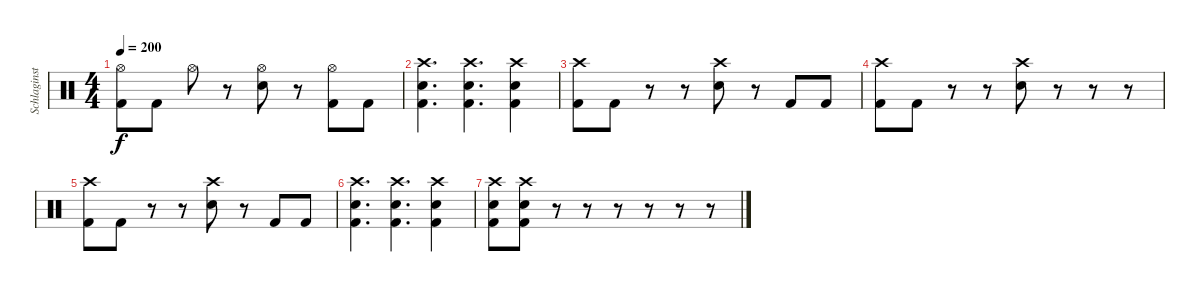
\track ("Schlaginstrumente - Auswahl" "Schlaginst") {instrument percussion}
\staff {score}
\articulation defaults
\ts (4 4)
\tempo 200
\clef neutral
\ks c
("Hi-Hat (open)" "Kick (hit) 2").8{dy f} "Kick (hit) 2".8 "Hi-Hat (open)".8 r.8 ("Hi-Hat (open)" "Electric Snare (hit)").8 r.8 ("Hi-Hat (open)" "Kick (hit) 2").8 "Kick (hit) 2".8 |
("Crash high (hit)" "Electric Snare (hit)" "Kick (hit) 2").4{d} ("Crash high (hit)" "Electric Snare (hit)" "Kick (hit) 2").4{d} ("Crash high (hit)" "Electric Snare (hit)" "Kick (hit) 2").4 |
("Crash high (hit)" "Kick (hit) 2").8 "Kick (hit) 2".8 r.8 r.8 ("Crash high (hit)" "Electric Snare (hit)").8 r.8 "Kick (hit) 2".8 "Kick (hit) 2".8 |
("Crash high (hit)" "Kick (hit) 2").8 "Kick (hit) 2".8 r.8 r.8 ("Crash high (hit)" "Electric Snare (hit)").8 r.8 r.8 r.8 |
("Crash high (hit)" "Kick (hit) 2").8 "Kick (hit) 2".8 r.8 r.8 ("Crash high (hit)" "Electric Snare (hit)").8 r.8 "Kick (hit) 2".8 "Kick (hit) 2".8 |
("Crash high (hit)" "Electric Snare (hit)" "Kick (hit) 2").4{d} ("Crash high (hit)" "Electric Snare (hit)" "Kick (hit) 2").4{d} ("Crash high (hit)" "Electric Snare (hit)" "Kick (hit) 2").4 |
("Crash high (hit)" "Electric Snare (hit)" "Kick (hit) 2").8 ("Crash high (hit)" "Electric Snare (hit)" "Kick (hit) 2").8 r.8 r.8 r.8 r.8 r.8 r.8
